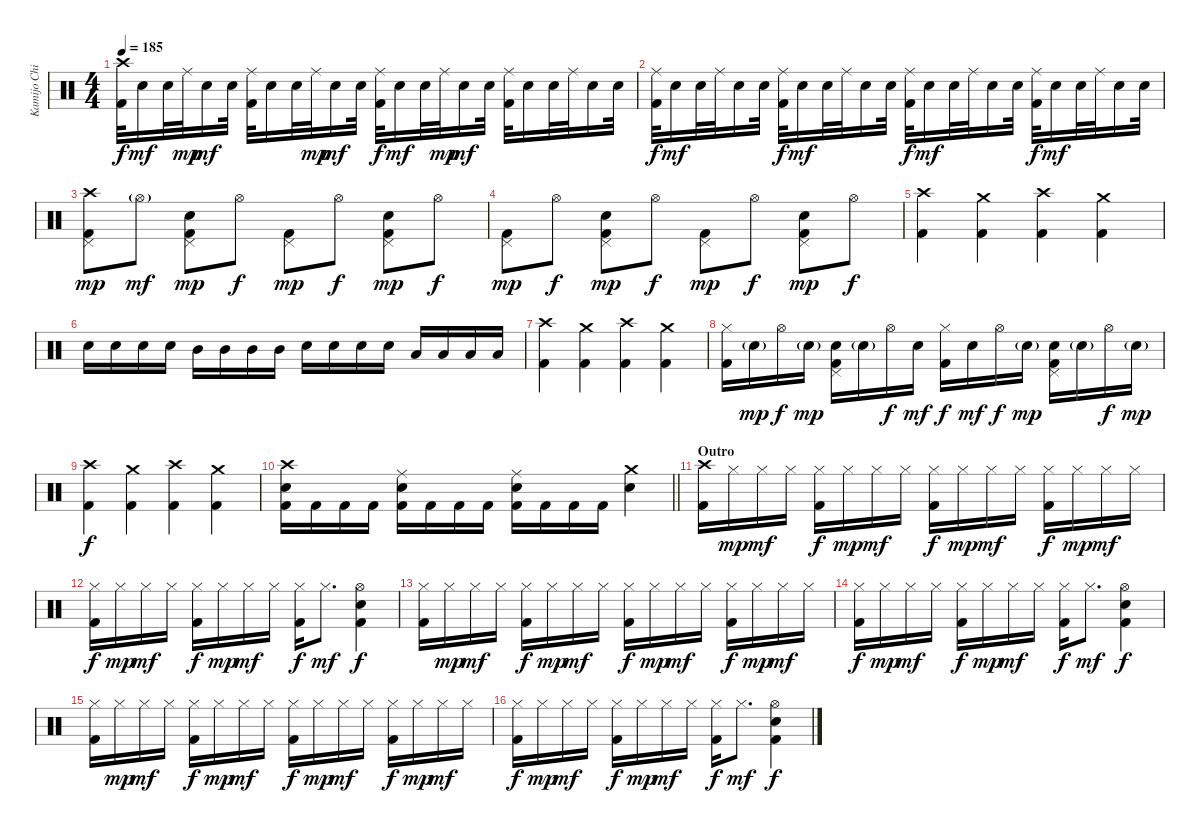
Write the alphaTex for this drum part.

\track ("Kamijo Chihiro" "Kamijo Chi") {instrument percussion}
\staff {score}
\articulation defaults
\ts (4 4)
\tempo 185
\clef neutral
\ks c
("Crash high (hit)" "Kick (hit) 2").32{dy f} "Snare (hit) 2".16{dy mf} "Snare (hit) 2".32 "Ride (middle)".32{dy mp} "Snare (hit) 2".16{dy mf} "Snare (hit) 2".32 ("Ride (middle)" "Kick (hit) 2").32 "Snare (hit) 2".16 "Snare (hit) 2".32 "Ride (middle)".32{dy mp} "Snare (hit) 2".16{dy mf} "Snare (hit) 2".32 ("Ride (middle)" "Kick (hit) 2").32{dy f} "Snare (hit) 2".16{dy mf} "Snare (hit) 2".32 "Ride (middle)".32{dy mp} "Snare (hit) 2".16{dy mf} "Snare (hit) 2".32 ("Ride (middle)" "Kick (hit) 2").32 "Snare (hit) 2".16 "Snare (hit) 2".32 "Ride (middle)".32 "Snare (hit) 2".16 "Snare (hit) 2".32 |
("Ride (middle)" "Kick (hit) 2").32{dy f} "Snare (hit) 2".16{dy mf} "Snare (hit) 2".32 "Ride (middle)".32 "Snare (hit) 2".16 "Snare (hit) 2".32 ("Ride (middle)" "Kick (hit) 2").32{dy f} "Snare (hit) 2".16{dy mf} "Snare (hit) 2".32 "Ride (middle)".32 "Snare (hit) 2".16 "Snare (hit) 2".32 ("Ride (middle)" "Kick (hit) 2").32{dy f} "Snare (hit) 2".16{dy mf} "Snare (hit) 2".32 "Ride (middle)".32 "Snare (hit) 2".16 "Snare (hit) 2".32 ("Ride (middle)" "Kick (hit) 2").32{dy f} "Snare (hit) 2".16{dy mf} "Snare (hit) 2".32 "Ride (middle)".32 "Snare (hit) 2".16 "Snare (hit) 2".32 |
("Crash high (hit)" "Pedal Hi-Hat (hit)" "Kick (hit) 2").8{dy mp} "Hi-Hat (open)"{g}.8{dy mf} ("Pedal Hi-Hat (hit)" "Snare (hit) 2" "Kick (hit) 2").8{dy mp} "Hi-Hat (open)".8{dy f} ("Pedal Hi-Hat (hit)" "Kick (hit) 2").8{dy mp} "Hi-Hat (open)".8{dy f} ("Pedal Hi-Hat (hit)" "Snare (hit) 2" "Kick (hit) 2").8{dy mp} "Hi-Hat (open)".8{dy f} |
("Pedal Hi-Hat (hit)" "Kick (hit) 2").8{dy mp} "Hi-Hat (open)".8{dy f} ("Pedal Hi-Hat (hit)" "Snare (hit) 2" "Kick (hit) 2").8{dy mp} "Hi-Hat (open)".8{dy f} ("Pedal Hi-Hat (hit)" "Kick (hit) 2").8{dy mp} "Hi-Hat (open)".8{dy f} ("Pedal Hi-Hat (hit)" "Snare (hit) 2" "Kick (hit) 2").8{dy mp} "Hi-Hat (open)".8{dy f} |
("Crash high (hit)" "Kick (hit) 2").4 ("Crash medium (hit)" "Kick (hit) 2").4 ("Crash high (hit)" "Kick (hit) 2").4 ("Crash medium (hit)" "Kick (hit) 2").4 |
"Snare (hit) 2".16 "Snare (hit) 2".16 "Snare (hit) 2".16 "Snare (hit) 2".16 "Mid Tom (hit)".16 "Mid Tom (hit)".16 "Mid Tom (hit)".16 "Mid Tom (hit)".16 "Snare (hit) 2".16 "Snare (hit) 2".16 "Snare (hit) 2".16 "Snare (hit) 2".16 "Low Tom (hit)".16 "Low Tom (hit)".16 "Low Tom (hit)".16 "Low Tom (hit)".16 |
("Crash high (hit)" "Kick (hit) 2").4 ("Crash medium (hit)" "Kick (hit) 2").4 ("Crash high (hit)" "Kick (hit) 2").4 ("Crash medium (hit)" "Kick (hit) 2").4 |
("Hi-Hat (closed)" "Kick (hit) 2").16 "Snare (hit) 2"{g}.16{dy mp} "Hi-Hat (open)".16{dy f} "Snare (hit) 2"{g}.16{dy mp} ("Pedal Hi-Hat (hit)" "Snare (hit) 2" "Kick (hit) 2").16 "Snare (hit) 2"{g}.16 "Hi-Hat (open)".16{dy f} "Snare (hit) 2".16{dy mf} ("Hi-Hat (closed)" "Kick (hit) 2").16{dy f} "Snare (hit) 2".16{dy mf} "Hi-Hat (open)".16{dy f} "Snare (hit) 2"{g}.16{dy mp} ("Pedal Hi-Hat (hit)" "Snare (hit) 2" "Kick (hit) 2").16 "Snare (hit) 2"{g}.16 "Hi-Hat (open)".16{dy f} "Snare (hit) 2"{g}.16{dy mp} |
("Crash high (hit)" "Kick (hit) 2").4{dy f} ("Crash medium (hit)" "Kick (hit) 2").4 ("Crash high (hit)" "Kick (hit) 2").4 ("Crash medium (hit)" "Kick (hit) 2").4 |
\barLineRight lightlight
("Crash high (hit)" "Snare (hit) 2" "Kick (hit) 2").16 "Kick (hit) 2".16 "Kick (hit) 2".16 "Kick (hit) 2".16 ("Ride (middle)" "Snare (hit) 2" "Kick (hit) 2").16 "Kick (hit) 2".16 "Kick (hit) 2".16 "Kick (hit) 2".16 ("Ride (middle)" "Snare (hit) 2" "Kick (hit) 2").16 "Kick (hit) 2".16 "Kick (hit) 2".16 "Kick (hit) 2".16 ("Crash medium (hit)" "Snare (hit) 2").4 |
\section ("" "Outro")
("Crash high (hit)" "Kick (hit) 2").16 "Hi-Hat (closed)".16{dy mp} "Hi-Hat (closed)".16{dy mf} "Hi-Hat (closed)".16 ("Hi-Hat (closed)" "Kick (hit) 2").16{dy f} "Hi-Hat (closed)".16{dy mp} "Hi-Hat (closed)".16{dy mf} "Hi-Hat (closed)".16 ("Hi-Hat (closed)" "Kick (hit) 2").16{dy f} "Hi-Hat (closed)".16{dy mp} "Hi-Hat (closed)".16{dy mf} "Hi-Hat (closed)".16 ("Hi-Hat (closed)" "Kick (hit) 2").16{dy f} "Hi-Hat (closed)".16{dy mp} "Hi-Hat (closed)".16{dy mf} "Hi-Hat (closed)".16 |
("Hi-Hat (closed)" "Kick (hit) 2").16{dy f} "Hi-Hat (closed)".16{dy mp} "Hi-Hat (closed)".16{dy mf} "Hi-Hat (closed)".16 ("Hi-Hat (closed)" "Kick (hit) 2").16{dy f} "Hi-Hat (closed)".16{dy mp} "Hi-Hat (closed)".16{dy mf} "Hi-Hat (closed)".16 ("Hi-Hat (closed)" "Kick (hit) 2").16{dy f} "Hi-Hat (closed)".8{d dy mf} ("Hi-Hat (open)" "Snare (hit) 2" "Kick (hit) 2").4{dy f} |
("Hi-Hat (closed)" "Kick (hit) 2").16 "Hi-Hat (closed)".16{dy mp} "Hi-Hat (closed)".16{dy mf} "Hi-Hat (closed)".16 ("Hi-Hat (closed)" "Kick (hit) 2").16{dy f} "Hi-Hat (closed)".16{dy mp} "Hi-Hat (closed)".16{dy mf} "Hi-Hat (closed)".16 ("Hi-Hat (closed)" "Kick (hit) 2").16{dy f} "Hi-Hat (closed)".16{dy mp} "Hi-Hat (closed)".16{dy mf} "Hi-Hat (closed)".16 ("Hi-Hat (closed)" "Kick (hit) 2").16{dy f} "Hi-Hat (closed)".16{dy mp} "Hi-Hat (closed)".16{dy mf} "Hi-Hat (closed)".16 |
("Hi-Hat (closed)" "Kick (hit) 2").16{dy f} "Hi-Hat (closed)".16{dy mp} "Hi-Hat (closed)".16{dy mf} "Hi-Hat (closed)".16 ("Hi-Hat (closed)" "Kick (hit) 2").16{dy f} "Hi-Hat (closed)".16{dy mp} "Hi-Hat (closed)".16{dy mf} "Hi-Hat (closed)".16 ("Hi-Hat (closed)" "Kick (hit) 2").16{dy f} "Hi-Hat (closed)".8{d dy mf} ("Hi-Hat (open)" "Snare (hit) 2" "Kick (hit) 2").4{dy f} |
("Hi-Hat (closed)" "Kick (hit) 2").16 "Hi-Hat (closed)".16{dy mp} "Hi-Hat (closed)".16{dy mf} "Hi-Hat (closed)".16 ("Hi-Hat (closed)" "Kick (hit) 2").16{dy f} "Hi-Hat (closed)".16{dy mp} "Hi-Hat (closed)".16{dy mf} "Hi-Hat (closed)".16 ("Hi-Hat (closed)" "Kick (hit) 2").16{dy f} "Hi-Hat (closed)".16{dy mp} "Hi-Hat (closed)".16{dy mf} "Hi-Hat (closed)".16 ("Hi-Hat (closed)" "Kick (hit) 2").16{dy f} "Hi-Hat (closed)".16{dy mp} "Hi-Hat (closed)".16{dy mf} "Hi-Hat (closed)".16 |
("Hi-Hat (closed)" "Kick (hit) 2").16{dy f} "Hi-Hat (closed)".16{dy mp} "Hi-Hat (closed)".16{dy mf} "Hi-Hat (closed)".16 ("Hi-Hat (closed)" "Kick (hit) 2").16{dy f} "Hi-Hat (closed)".16{dy mp} "Hi-Hat (closed)".16{dy mf} "Hi-Hat (closed)".16 ("Hi-Hat (closed)" "Kick (hit) 2").16{dy f} "Hi-Hat (closed)".8{d dy mf} ("Hi-Hat (open)" "Snare (hit) 2" "Kick (hit) 2").4{dy f}
